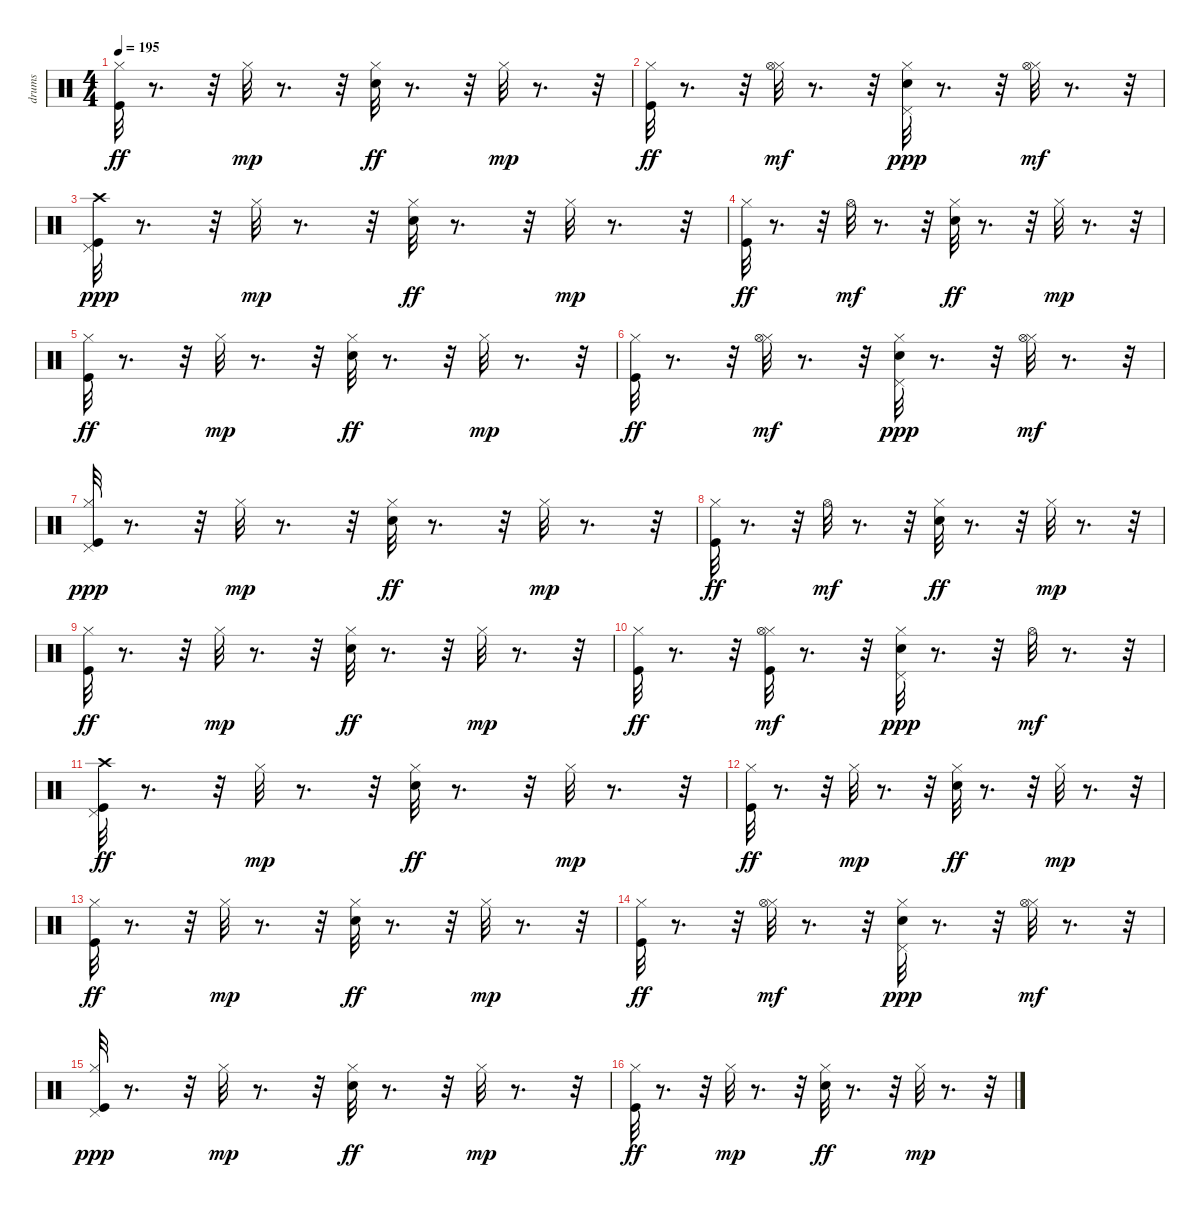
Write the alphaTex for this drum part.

\track ("drums" "drums") {instrument percussion}
\staff {score}
\articulation defaults
\ts (4 4)
\tempo 195
\clef neutral
\ks c
("Kick (hit)" "Hi-Hat (closed)").32{dy ff} r.8{d} r.32 "Hi-Hat (closed)".32{dy mp} r.8{d} r.32 ("Snare (hit) 2" "Hi-Hat (closed)").32{dy ff} r.8{d} r.32 "Hi-Hat (closed)".32{dy mp} r.8{d} r.32 |
("Hi-Hat (closed)" "Kick (hit)").32{dy ff} r.8{d} r.32 ("Hi-Hat (closed)" "Hi-Hat (open)").32{dy mf} r.8{d} r.32 ("Snare (hit) 2" "Hi-Hat (closed)" "Pedal Hi-Hat (hit)").32{dy ppp} r.8{d} r.32 ("Hi-Hat (closed)" "Hi-Hat (open)").32{dy mf} r.8{d} r.32 |
("Crash high (hit)" "Kick (hit)" "Pedal Hi-Hat (hit)").32{dy ppp} r.8{d} r.32 "Hi-Hat (closed)".32{dy mp} r.8{d} r.32 ("Snare (hit) 2" "Hi-Hat (closed)").32{dy ff} r.8{d} r.32 "Hi-Hat (closed)".32{dy mp} r.8{d} r.32 |
("Kick (hit)" "Hi-Hat (closed)").32{dy ff} r.8{d} r.32 "Hi-Hat (open)".32{dy mf} r.8{d} r.32 ("Hi-Hat (closed)" "Snare (hit) 2").32{dy ff} r.8{d} r.32 "Hi-Hat (closed)".32{dy mp} r.8{d} r.32 |
("Kick (hit)" "Hi-Hat (closed)").32{dy ff} r.8{d} r.32 "Hi-Hat (closed)".32{dy mp} r.8{d} r.32 ("Snare (hit) 2" "Hi-Hat (closed)").32{dy ff} r.8{d} r.32 "Hi-Hat (closed)".32{dy mp} r.8{d} r.32 |
("Hi-Hat (closed)" "Kick (hit)").32{dy ff} r.8{d} r.32 ("Hi-Hat (closed)" "Hi-Hat (open)").32{dy mf} r.8{d} r.32 ("Hi-Hat (closed)" "Snare (hit) 2" "Pedal Hi-Hat (hit)").32{dy ppp} r.8{d} r.32 ("Hi-Hat (closed)" "Hi-Hat (open)").32{dy mf} r.8{d} r.32 |
("Kick (hit)" "Hi-Hat (closed)" "Pedal Hi-Hat (hit)").32{dy ppp} r.8{d} r.32 "Hi-Hat (closed)".32{dy mp} r.8{d} r.32 ("Snare (hit) 2" "Hi-Hat (closed)").32{dy ff} r.8{d} r.32 "Hi-Hat (closed)".32{dy mp} r.8{d} r.32 |
("Kick (hit)" "Hi-Hat (closed)").32{dy ff} r.8{d} r.32 "Hi-Hat (open)".32{dy mf} r.8{d} r.32 ("Hi-Hat (closed)" "Snare (hit) 2").32{dy ff} r.8{d} r.32 "Hi-Hat (closed)".32{dy mp} r.8{d} r.32 |
("Hi-Hat (closed)" "Kick (hit)").32{dy ff} r.8{d} r.32 "Hi-Hat (closed)".32{dy mp} r.8{d} r.32 ("Hi-Hat (closed)" "Snare (hit) 2").32{dy ff} r.8{d} r.32 "Hi-Hat (closed)".32{dy mp} r.8{d} r.32 |
("Hi-Hat (closed)" "Kick (hit)").32{dy ff} r.8{d} r.32 ("Kick (hit)" "Hi-Hat (closed)" "Hi-Hat (open)").32{dy mf} r.8{d} r.32 ("Hi-Hat (closed)" "Snare (hit) 2" "Pedal Hi-Hat (hit)").32{dy ppp} r.8{d} r.32 "Hi-Hat (open)".32{dy mf} r.8{d} r.32 |
("Pedal Hi-Hat (hit)" "Crash high (hit)" "Kick (hit)").32{dy ff} r.8{d} r.32 "Hi-Hat (closed)".32{dy mp} r.8{d} r.32 ("Hi-Hat (closed)" "Snare (hit) 2").32{dy ff} r.8{d} r.32 "Hi-Hat (closed)".32{dy mp} r.8{d} r.32 |
("Hi-Hat (closed)" "Kick (hit)").32{dy ff} r.8{d} r.32 "Hi-Hat (closed)".32{dy mp} r.8{d} r.32 ("Snare (hit) 2" "Hi-Hat (closed)").32{dy ff} r.8{d} r.32 "Hi-Hat (closed)".32{dy mp} r.8{d} r.32 |
("Hi-Hat (closed)" "Kick (hit)").32{dy ff} r.8{d} r.32 "Hi-Hat (closed)".32{dy mp} r.8{d} r.32 ("Snare (hit) 2" "Hi-Hat (closed)").32{dy ff} r.8{d} r.32 "Hi-Hat (closed)".32{dy mp} r.8{d} r.32 |
("Kick (hit)" "Hi-Hat (closed)").32{dy ff} r.8{d} r.32 ("Hi-Hat (closed)" "Hi-Hat (open)").32{dy mf} r.8{d} r.32 ("Snare (hit) 2" "Hi-Hat (closed)" "Pedal Hi-Hat (hit)").32{dy ppp} r.8{d} r.32 ("Hi-Hat (closed)" "Hi-Hat (open)").32{dy mf} r.8{d} r.32 |
("Hi-Hat (closed)" "Kick (hit)" "Pedal Hi-Hat (hit)").32{dy ppp} r.8{d} r.32 "Hi-Hat (closed)".32{dy mp} r.8{d} r.32 ("Hi-Hat (closed)" "Snare (hit) 2").32{dy ff} r.8{d} r.32 "Hi-Hat (closed)".32{dy mp} r.8{d} r.32 |
("Hi-Hat (closed)" "Kick (hit)").32{dy ff} r.8{d} r.32 "Hi-Hat (closed)".32{dy mp} r.8{d} r.32 ("Snare (hit) 2" "Hi-Hat (closed)").32{dy ff} r.8{d} r.32 "Hi-Hat (closed)".32{dy mp} r.8{d} r.32
